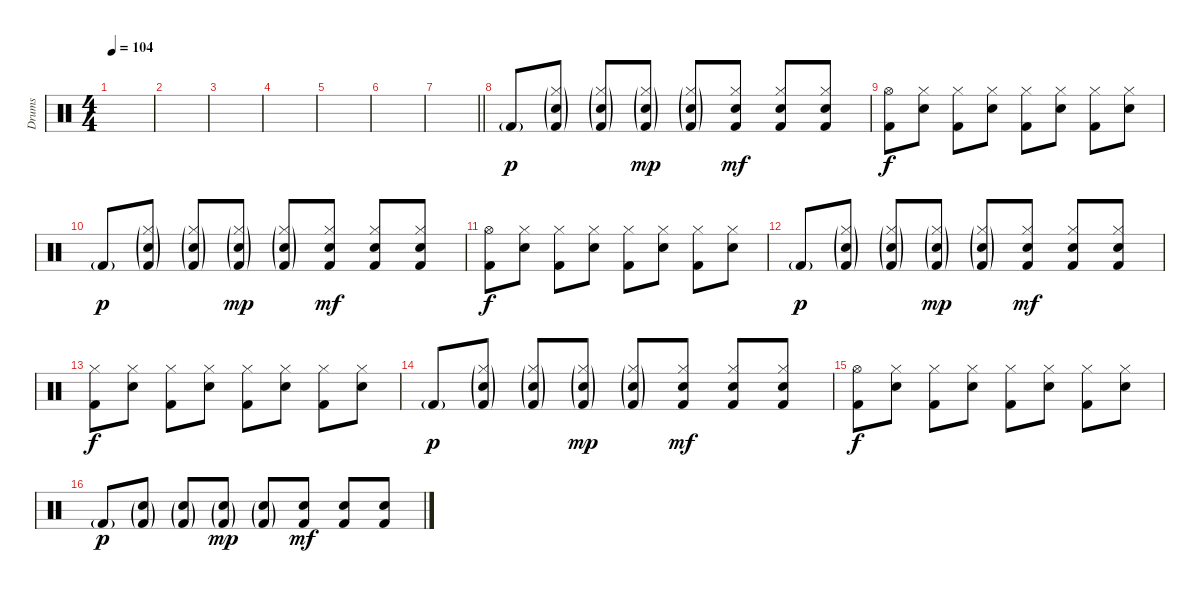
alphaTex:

\track ("Drums" "Drums") {instrument percussion}
\staff {score}
\articulation defaults
\ts (4 4)
\tempo 104
\clef neutral
\ks c
|
|
|
|
|
|
\barLineRight lightlight
|
\section ("" "")
"Kick (hit) 2"{g}.8{dy p} ("Hi-Hat (closed)"{g} "Snare (hit) 2"{g} "Kick (hit) 2"{g}).8 ("Hi-Hat (closed)"{g} "Snare (hit) 2"{g} "Kick (hit) 2"{g}).8 ("Hi-Hat (closed)"{g} "Snare (hit) 2"{g} "Kick (hit) 2"{g}).8{dy mp} ("Hi-Hat (closed)"{g} "Snare (hit) 2"{g} "Kick (hit) 2"{g}).8 ("Hi-Hat (closed)" "Snare (hit) 2" "Kick (hit) 2").8{dy mf} ("Hi-Hat (closed)" "Snare (hit) 2" "Kick (hit) 2").8 ("Hi-Hat (closed)" "Snare (hit) 2" "Kick (hit) 2").8 |
("Hi-Hat (open)" "Kick (hit) 2").8{dy f} ("Hi-Hat (closed)" "Snare (hit) 2").8 ("Hi-Hat (closed)" "Kick (hit) 2").8 ("Hi-Hat (closed)" "Snare (hit) 2").8 ("Hi-Hat (closed)" "Kick (hit) 2").8 ("Hi-Hat (closed)" "Snare (hit) 2").8 ("Hi-Hat (closed)" "Kick (hit) 2").8 ("Hi-Hat (closed)" "Snare (hit) 2").8 |
"Kick (hit) 2"{g}.8{dy p} ("Hi-Hat (closed)"{g} "Snare (hit) 2"{g} "Kick (hit) 2"{g}).8 ("Hi-Hat (closed)"{g} "Snare (hit) 2"{g} "Kick (hit) 2"{g}).8 ("Hi-Hat (closed)"{g} "Snare (hit) 2"{g} "Kick (hit) 2"{g}).8{dy mp} ("Hi-Hat (closed)"{g} "Snare (hit) 2"{g} "Kick (hit) 2"{g}).8 ("Hi-Hat (closed)" "Snare (hit) 2" "Kick (hit) 2").8{dy mf} ("Hi-Hat (closed)" "Snare (hit) 2" "Kick (hit) 2").8 ("Hi-Hat (closed)" "Snare (hit) 2" "Kick (hit) 2").8 |
("Hi-Hat (open)" "Kick (hit) 2").8{dy f} ("Hi-Hat (closed)" "Snare (hit) 2").8 ("Hi-Hat (closed)" "Kick (hit) 2").8 ("Hi-Hat (closed)" "Snare (hit) 2").8 ("Hi-Hat (closed)" "Kick (hit) 2").8 ("Hi-Hat (closed)" "Snare (hit) 2").8 ("Hi-Hat (closed)" "Kick (hit) 2").8 ("Hi-Hat (closed)" "Snare (hit) 2").8 |
"Kick (hit) 2"{g}.8{dy p} ("Hi-Hat (closed)"{g} "Snare (hit) 2"{g} "Kick (hit) 2"{g}).8 ("Hi-Hat (closed)"{g} "Snare (hit) 2"{g} "Kick (hit) 2"{g}).8 ("Hi-Hat (closed)"{g} "Snare (hit) 2"{g} "Kick (hit) 2"{g}).8{dy mp} ("Hi-Hat (closed)"{g} "Snare (hit) 2"{g} "Kick (hit) 2"{g}).8 ("Hi-Hat (closed)" "Snare (hit) 2" "Kick (hit) 2").8{dy mf} ("Hi-Hat (closed)" "Snare (hit) 2" "Kick (hit) 2").8 ("Hi-Hat (closed)" "Snare (hit) 2" "Kick (hit) 2").8 |
("Hi-Hat (closed)" "Kick (hit) 2").8{dy f} ("Hi-Hat (closed)" "Snare (hit) 2").8 ("Hi-Hat (closed)" "Kick (hit) 2").8 ("Hi-Hat (closed)" "Snare (hit) 2").8 ("Hi-Hat (closed)" "Kick (hit) 2").8 ("Hi-Hat (closed)" "Snare (hit) 2").8 ("Hi-Hat (closed)" "Kick (hit) 2").8 ("Hi-Hat (closed)" "Snare (hit) 2").8 |
"Kick (hit) 2"{g}.8{dy p} ("Hi-Hat (closed)"{g} "Snare (hit) 2"{g} "Kick (hit) 2"{g}).8 ("Hi-Hat (closed)"{g} "Snare (hit) 2"{g} "Kick (hit) 2"{g}).8 ("Hi-Hat (closed)"{g} "Snare (hit) 2"{g} "Kick (hit) 2"{g}).8{dy mp} ("Hi-Hat (closed)"{g} "Snare (hit) 2"{g} "Kick (hit) 2"{g}).8 ("Hi-Hat (closed)" "Snare (hit) 2" "Kick (hit) 2").8{dy mf} ("Hi-Hat (closed)" "Snare (hit) 2" "Kick (hit) 2").8 ("Hi-Hat (closed)" "Snare (hit) 2" "Kick (hit) 2").8 |
("Hi-Hat (open)" "Kick (hit) 2").8{dy f} ("Hi-Hat (closed)" "Snare (hit) 2").8 ("Hi-Hat (closed)" "Kick (hit) 2").8 ("Hi-Hat (closed)" "Snare (hit) 2").8 ("Hi-Hat (closed)" "Kick (hit) 2").8 ("Hi-Hat (closed)" "Snare (hit) 2").8 ("Hi-Hat (closed)" "Kick (hit) 2").8 ("Hi-Hat (closed)" "Snare (hit) 2").8 |
"Kick (hit) 2"{g}.8{dy p} ("Snare (hit) 2"{g} "Kick (hit) 2"{g}).8 ("Snare (hit) 2"{g} "Kick (hit) 2"{g}).8 ("Snare (hit) 2"{g} "Kick (hit) 2"{g}).8{dy mp} ("Snare (hit) 2"{g} "Kick (hit) 2"{g}).8 ("Snare (hit) 2" "Kick (hit) 2").8{dy mf} ("Snare (hit) 2" "Kick (hit) 2").8 ("Snare (hit) 2" "Kick (hit) 2").8
